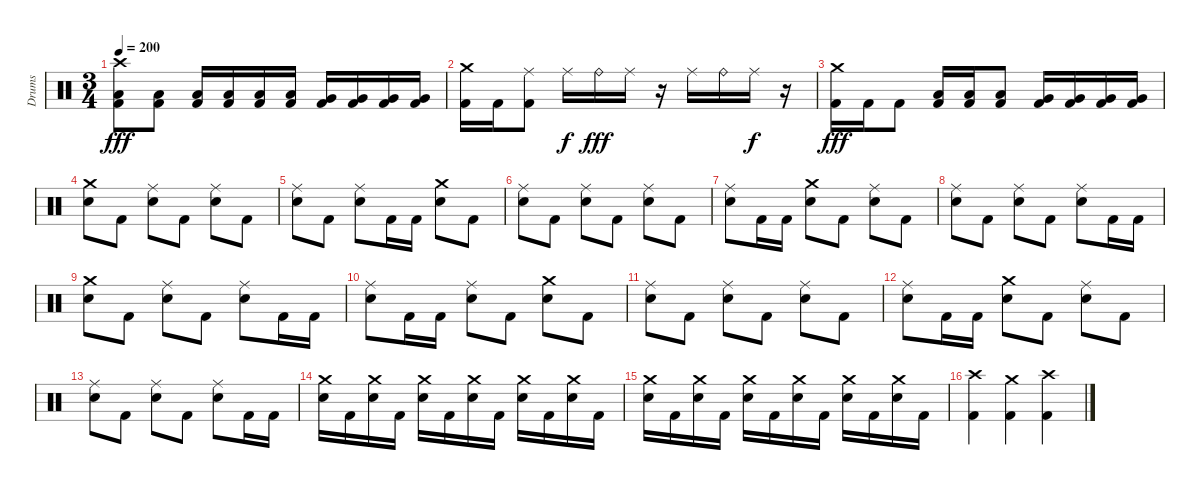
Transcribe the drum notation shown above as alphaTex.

\track ("Drums" "Drums") {instrument percussion}
\staff {score}
\articulation defaults
\ts (3 4)
\tempo 200
\clef neutral
\ks c
("Crash high (hit)" "Low Floor Tom (hit)" "Kick (hit) 2").8{dy fff} ("Low Floor Tom (hit)" "Kick (hit) 2").8 ("Low Tom (hit)" "Kick (hit) 2").16 ("Low Tom (hit)" "Kick (hit) 2").16 ("Low Tom (hit)" "Kick (hit) 2").16 ("Low Tom (hit)" "Kick (hit) 2").16 ("Very Low Tom (hit)" "Kick (hit) 2").16 ("Very Low Tom (hit)" "Kick (hit) 2").16 ("Very Low Tom (hit)" "Kick (hit) 2").16 ("Very Low Tom (hit)" "Kick (hit) 2").16 |
("Crash medium (hit)" "Kick (hit) 2").16 "Kick (hit) 2".16 ("Ride (middle)" "Kick (hit) 2").8 "Ride (middle)".16{dy f} "Ride (bell)".16{dy fff} "Ride (middle)".16 r.16 "Ride (middle)".16 "Ride (bell)".16 "Ride (middle)".16{dy f} r.16 |
("Crash medium (hit)" "Kick (hit) 2").16{dy fff} "Kick (hit) 2".16 "Kick (hit) 2".8 ("Low Tom (hit)" "Kick (hit) 2").16 ("Low Tom (hit)" "Kick (hit) 2").16 ("Low Tom (hit)" "Kick (hit) 2").8 ("Very Low Tom (hit)" "Kick (hit) 2").16 ("Very Low Tom (hit)" "Kick (hit) 2").16 ("Very Low Tom (hit)" "Kick (hit) 2").16 ("Very Low Tom (hit)" "Kick (hit) 2").16 |
("Crash medium (hit)" "Snare (hit) 2").8 "Kick (hit) 2".8 ("Ride (middle)" "Snare (hit) 2").8 "Kick (hit) 2".8 ("Ride (middle)" "Snare (hit) 2").8 "Kick (hit) 2".8 |
("Ride (middle)" "Snare (hit) 2").8 "Kick (hit) 2".8 ("Ride (middle)" "Snare (hit) 2").8 "Kick (hit) 2".16 "Kick (hit) 2".16 ("Crash medium (hit)" "Snare (hit) 2").8 "Kick (hit) 2".8 |
("Ride (middle)" "Snare (hit) 2").8 "Kick (hit) 2".8 ("Ride (middle)" "Snare (hit) 2").8 "Kick (hit) 2".8 ("Ride (middle)" "Snare (hit) 2").8 "Kick (hit) 2".8 |
("Ride (middle)" "Snare (hit) 2").8 "Kick (hit) 2".16 "Kick (hit) 2".16 ("Crash medium (hit)" "Snare (hit) 2").8 "Kick (hit) 2".8 ("Ride (middle)" "Snare (hit) 2").8 "Kick (hit) 2".8 |
("Ride (middle)" "Snare (hit) 2").8 "Kick (hit) 2".8 ("Ride (middle)" "Snare (hit) 2").8 "Kick (hit) 2".8 ("Ride (middle)" "Snare (hit) 2").8 "Kick (hit) 2".16 "Kick (hit) 2".16 |
("Crash medium (hit)" "Snare (hit) 2").8 "Kick (hit) 2".8 ("Ride (middle)" "Snare (hit) 2").8 "Kick (hit) 2".8 ("Ride (middle)" "Snare (hit) 2").8 "Kick (hit) 2".16 "Kick (hit) 2".16 |
("Ride (middle)" "Snare (hit) 2").8 "Kick (hit) 2".16 "Kick (hit) 2".16 ("Ride (middle)" "Snare (hit) 2").8 "Kick (hit) 2".8 ("Crash medium (hit)" "Snare (hit) 2").8 "Kick (hit) 2".8 |
("Ride (middle)" "Snare (hit) 2").8 "Kick (hit) 2".8 ("Ride (middle)" "Snare (hit) 2").8 "Kick (hit) 2".8 ("Ride (middle)" "Snare (hit) 2").8 "Kick (hit) 2".8 |
("Ride (middle)" "Snare (hit) 2").8 "Kick (hit) 2".16 "Kick (hit) 2".16 ("Crash medium (hit)" "Snare (hit) 2").8 "Kick (hit) 2".8 ("Ride (middle)" "Snare (hit) 2").8 "Kick (hit) 2".8 |
("Ride (middle)" "Snare (hit) 2").8 "Kick (hit) 2".8 ("Ride (middle)" "Snare (hit) 2").8 "Kick (hit) 2".8 ("Ride (middle)" "Snare (hit) 2").8 "Kick (hit) 2".16 "Kick (hit) 2".16 |
("Crash medium (hit)" "Snare (hit) 2").16 "Kick (hit) 2".16 ("Crash medium (hit)" "Snare (hit) 2").16 "Kick (hit) 2".16 ("Crash medium (hit)" "Snare (hit) 2").16 "Kick (hit) 2".16 ("Crash medium (hit)" "Snare (hit) 2").16 "Kick (hit) 2".16 ("Crash medium (hit)" "Snare (hit) 2").16 "Kick (hit) 2".16 ("Crash medium (hit)" "Snare (hit) 2").16 "Kick (hit) 2".16 |
("Crash medium (hit)" "Snare (hit) 2").16 "Kick (hit) 2".16 ("Crash medium (hit)" "Snare (hit) 2").16 "Kick (hit) 2".16 ("Crash medium (hit)" "Snare (hit) 2").16 "Kick (hit) 2".16 ("Crash medium (hit)" "Snare (hit) 2").16 "Kick (hit) 2".16 ("Crash medium (hit)" "Snare (hit) 2").16 "Kick (hit) 2".16 ("Crash medium (hit)" "Snare (hit) 2").16 "Kick (hit) 2".16 |
("Crash high (hit)" "Kick (hit) 2").4 ("Crash medium (hit)" "Kick (hit) 2").4 ("Crash high (hit)" "Kick (hit) 2").4
